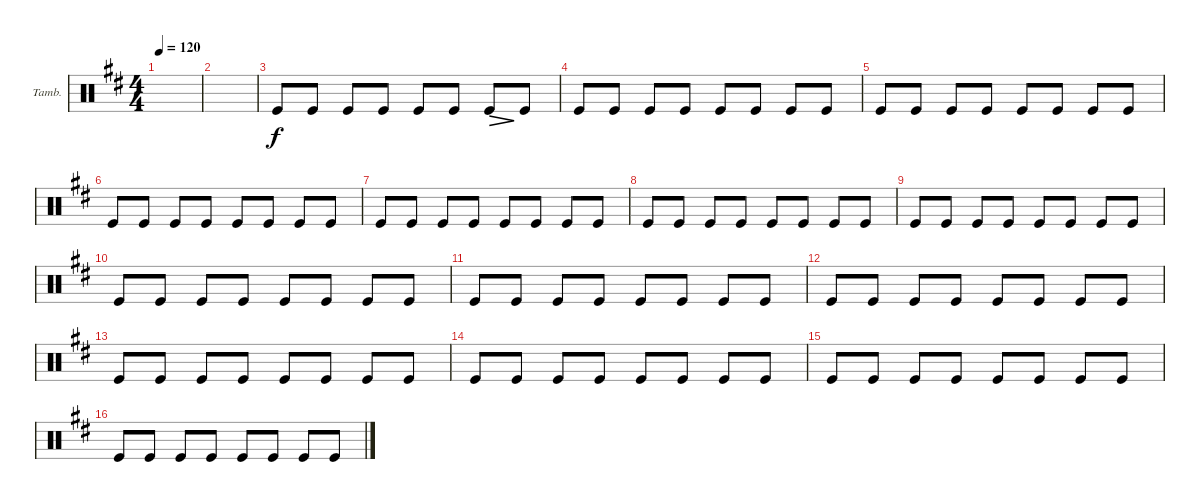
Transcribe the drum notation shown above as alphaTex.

\defaultSystemsLayout 4
\bracketExtendMode groupsimilarinstruments
\firstSystemTrackNameOrientation horizontal
\otherSystemsTrackNameOrientation horizontal
\track ("Tambourine" "Tamb.") {instrument percussion}
\staff {score}
\articulation defaults
\ts (4 4)
\tempo 120
\clef neutral
\ks d
|
|
"Kick (hit)".8 "Kick (hit)".8 "Kick (hit)".8 "Kick (hit)".8 "Kick (hit)".8 "Kick (hit)".8 "Kick (hit)".8{dec} "Kick (hit)".8 |
"Kick (hit)".8 "Kick (hit)".8 "Kick (hit)".8 "Kick (hit)".8 "Kick (hit)".8 "Kick (hit)".8 "Kick (hit)".8 "Kick (hit)".8 |
"Kick (hit)".8 "Kick (hit)".8 "Kick (hit)".8 "Kick (hit)".8 "Kick (hit)".8 "Kick (hit)".8 "Kick (hit)".8 "Kick (hit)".8 |
"Kick (hit)".8 "Kick (hit)".8 "Kick (hit)".8 "Kick (hit)".8 "Kick (hit)".8 "Kick (hit)".8 "Kick (hit)".8 "Kick (hit)".8 |
"Kick (hit)".8 "Kick (hit)".8 "Kick (hit)".8 "Kick (hit)".8 "Kick (hit)".8 "Kick (hit)".8 "Kick (hit)".8 "Kick (hit)".8 |
"Kick (hit)".8 "Kick (hit)".8 "Kick (hit)".8 "Kick (hit)".8 "Kick (hit)".8 "Kick (hit)".8 "Kick (hit)".8 "Kick (hit)".8 |
"Kick (hit)".8 "Kick (hit)".8 "Kick (hit)".8 "Kick (hit)".8 "Kick (hit)".8 "Kick (hit)".8 "Kick (hit)".8 "Kick (hit)".8 |
"Kick (hit)".8 "Kick (hit)".8 "Kick (hit)".8 "Kick (hit)".8 "Kick (hit)".8 "Kick (hit)".8 "Kick (hit)".8 "Kick (hit)".8 |
"Kick (hit)".8 "Kick (hit)".8 "Kick (hit)".8 "Kick (hit)".8 "Kick (hit)".8 "Kick (hit)".8 "Kick (hit)".8 "Kick (hit)".8 |
"Kick (hit)".8 "Kick (hit)".8 "Kick (hit)".8 "Kick (hit)".8 "Kick (hit)".8 "Kick (hit)".8 "Kick (hit)".8 "Kick (hit)".8 |
"Kick (hit)".8 "Kick (hit)".8 "Kick (hit)".8 "Kick (hit)".8 "Kick (hit)".8 "Kick (hit)".8 "Kick (hit)".8 "Kick (hit)".8 |
"Kick (hit)".8 "Kick (hit)".8 "Kick (hit)".8 "Kick (hit)".8 "Kick (hit)".8 "Kick (hit)".8 "Kick (hit)".8 "Kick (hit)".8 |
"Kick (hit)".8 "Kick (hit)".8 "Kick (hit)".8 "Kick (hit)".8 "Kick (hit)".8 "Kick (hit)".8 "Kick (hit)".8 "Kick (hit)".8 |
"Kick (hit)".8 "Kick (hit)".8 "Kick (hit)".8 "Kick (hit)".8 "Kick (hit)".8 "Kick (hit)".8 "Kick (hit)".8 "Kick (hit)".8
